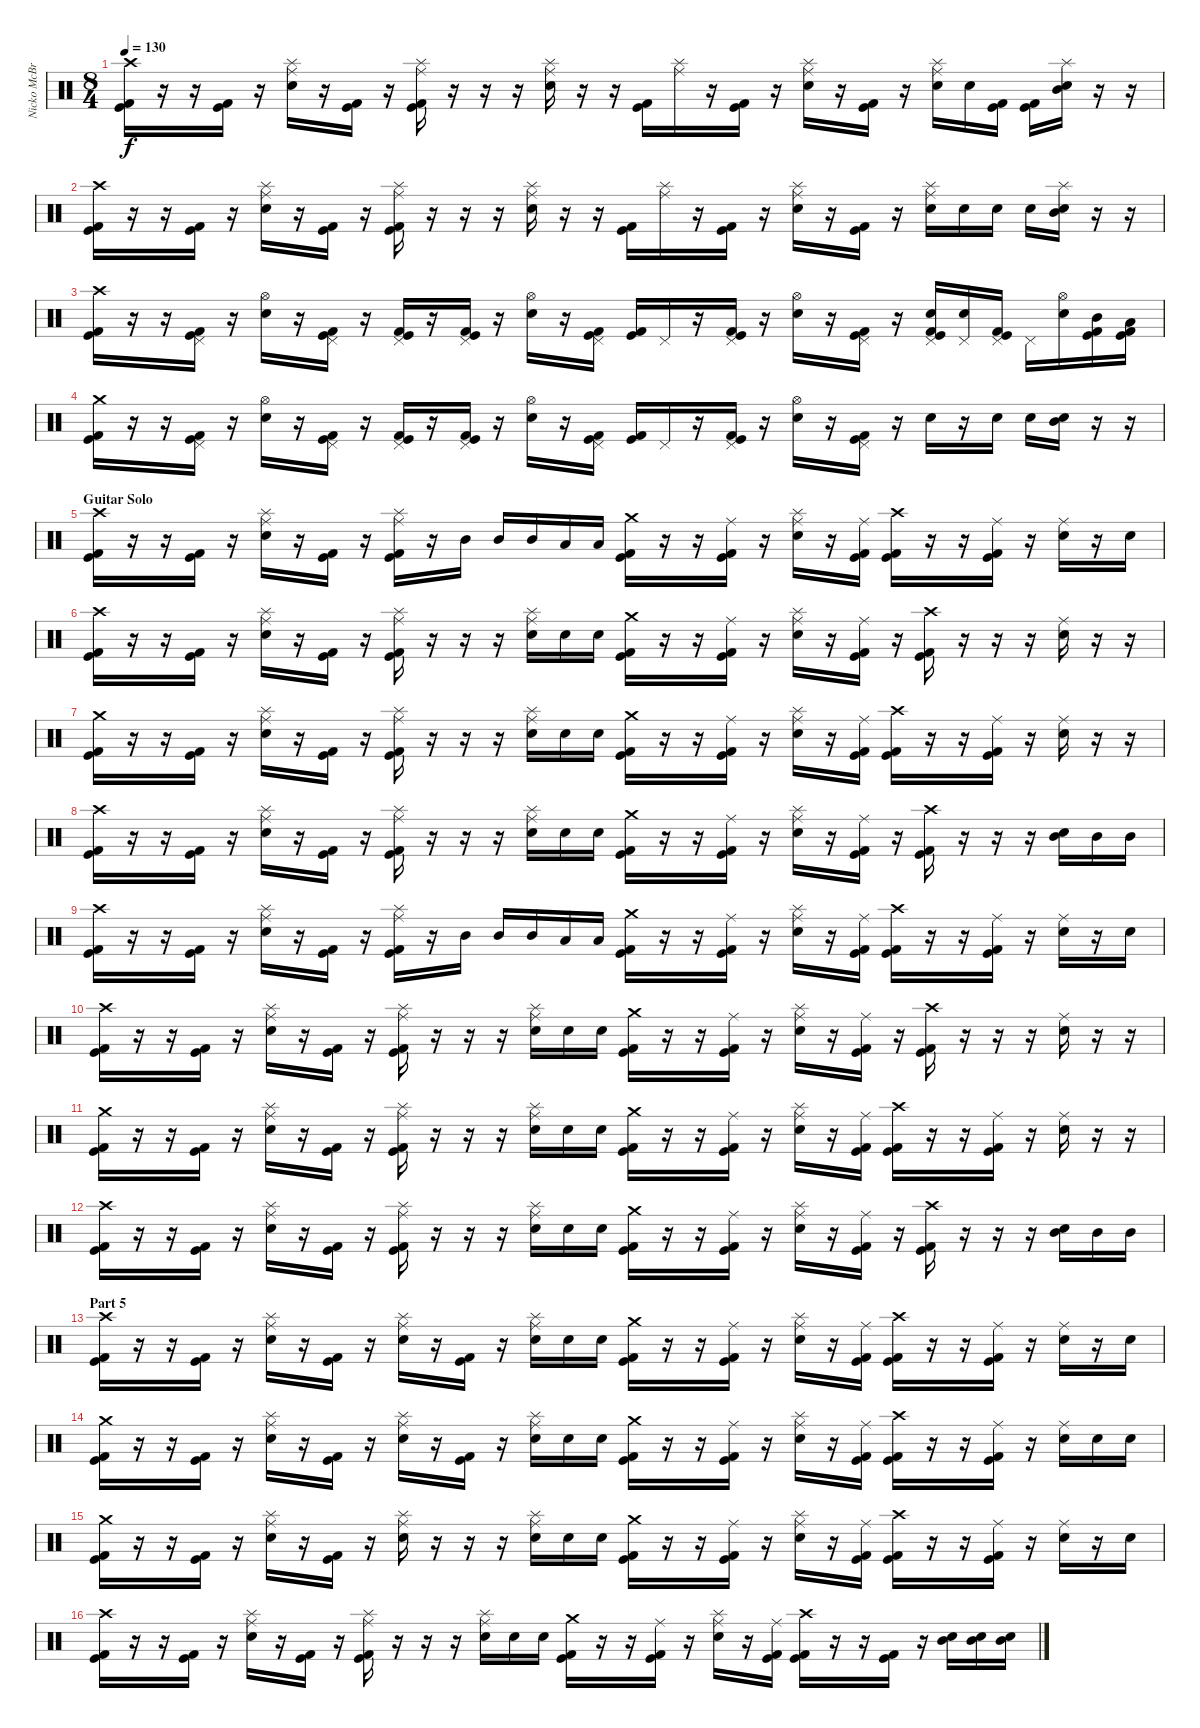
\track ("Nicko McBrain" "Nicko McBr") {instrument percussion}
\staff {score}
\articulation defaults
\ts (8 4)
\tempo 130
\clef neutral
\ks c
("Crash high (hit)" "Kick (hit)" "Kick (hit) 2").16{dy f} r.16 r.16 ("Kick (hit) 2" "Kick (hit)").16 r.16 ("Ride (middle)" "Splash (hit)" "Snare (hit) 2").16 r.16 ("Kick (hit)" "Kick (hit) 2").16 r.16 ("Ride (middle)" "Splash (hit)" "Kick (hit)" "Kick (hit) 2").16 r.16 r.16 r.16 ("Ride (middle)" "Splash (hit)" "Snare (hit) 2").16 r.16 r.16 ("Kick (hit)" "Kick (hit) 2").16 ("Ride (middle)" "Splash (hit)").16 r.16 ("Kick (hit)" "Kick (hit) 2").16 r.16 ("Ride (middle)" "Splash (hit)" "Snare (hit) 2").16 r.16 ("Kick (hit)" "Kick (hit) 2").16 r.16 ("Ride (middle)" "Splash (hit)" "Snare (hit) 2").16 "Snare (hit) 2".16 ("Kick (hit)" "Kick (hit) 2").16 ("Kick (hit)" "Kick (hit) 2").16 ("Mid Tom (hit)" "Splash (hit)" "Snare (hit) 2").16 r.16 r.16 |
("Crash high (hit)" "Kick (hit)" "Kick (hit) 2").16 r.16 r.16 ("Kick (hit) 2" "Kick (hit)").16 r.16 ("Ride (middle)" "Splash (hit)" "Snare (hit) 2").16 r.16 ("Kick (hit)" "Kick (hit) 2").16 r.16 ("Ride (middle)" "Splash (hit)" "Kick (hit)" "Kick (hit) 2").16 r.16 r.16 r.16 ("Ride (middle)" "Splash (hit)" "Snare (hit) 2").16 r.16 r.16 ("Kick (hit)" "Kick (hit) 2").16 ("Ride (middle)" "Splash (hit)").16 r.16 ("Kick (hit)" "Kick (hit) 2").16 r.16 ("Ride (middle)" "Splash (hit)" "Snare (hit) 2").16 r.16 ("Kick (hit)" "Kick (hit) 2").16 r.16 ("Ride (middle)" "Splash (hit)" "Snare (hit) 2").16 "Snare (hit) 2".16 "Snare (hit) 2".16 "Snare (hit) 2".16 ("Mid Tom (hit)" "Splash (hit)" "Snare (hit) 2").16 r.16 r.16 |
("Crash high (hit)" "Kick (hit)" "Kick (hit) 2").16 r.16 r.16 ("Pedal Hi-Hat (hit)" "Kick (hit)" "Kick (hit) 2").16 r.16 ("Hi-Hat (open)" "Snare (hit) 2").16 r.16 ("Pedal Hi-Hat (hit)" "Kick (hit)" "Kick (hit) 2").16 r.16 ("Pedal Hi-Hat (hit)" "Kick (hit)" "Kick (hit) 2").16 r.16 ("Pedal Hi-Hat (hit)" "Kick (hit)" "Kick (hit) 2").16 r.16 ("Hi-Hat (open)" "Snare (hit) 2").16 r.16 ("Pedal Hi-Hat (hit)" "Kick (hit)" "Kick (hit) 2").16 ("Kick (hit)" "Kick (hit) 2").16 "Pedal Hi-Hat (hit)".16 r.16 ("Pedal Hi-Hat (hit)" "Kick (hit)" "Kick (hit) 2").16 r.16 ("Hi-Hat (open)" "Snare (hit) 2").16 r.16 ("Pedal Hi-Hat (hit)" "Kick (hit)" "Kick (hit) 2").16 r.16 ("Pedal Hi-Hat (hit)" "Snare (hit) 2" "Kick (hit)" "Kick (hit) 2").16 ("Pedal Hi-Hat (hit)" "Snare (hit) 2").16 ("Pedal Hi-Hat (hit)" "Kick (hit)" "Kick (hit) 2").16 "Pedal Hi-Hat (hit)".16 ("Hi-Hat (open)" "Snare (hit) 2").16 ("Mid Tom (hit)" "Kick (hit)" "Kick (hit) 2").16 ("Low Tom (hit)" "Kick (hit)" "Kick (hit) 2").16 |
("Crash medium (hit)" "Kick (hit)" "Kick (hit) 2").16 r.16 r.16 ("Pedal Hi-Hat (hit)" "Kick (hit)" "Kick (hit) 2").16 r.16 ("Hi-Hat (open)" "Snare (hit) 2").16 r.16 ("Pedal Hi-Hat (hit)" "Kick (hit)" "Kick (hit) 2").16 r.16 ("Pedal Hi-Hat (hit)" "Kick (hit)" "Kick (hit) 2").16 r.16 ("Pedal Hi-Hat (hit)" "Kick (hit)" "Kick (hit) 2").16 r.16 ("Hi-Hat (open)" "Snare (hit) 2").16 r.16 ("Pedal Hi-Hat (hit)" "Kick (hit)" "Kick (hit) 2").16 ("Kick (hit)" "Kick (hit) 2").16 "Pedal Hi-Hat (hit)".16 r.16 ("Pedal Hi-Hat (hit)" "Kick (hit)" "Kick (hit) 2").16 r.16 ("Hi-Hat (open)" "Snare (hit) 2").16 r.16 ("Pedal Hi-Hat (hit)" "Kick (hit)" "Kick (hit) 2").16 r.16 "Snare (hit) 2".16 r.16 "Snare (hit) 2".16 "Snare (hit) 2".16 ("Mid Tom (hit)" "Snare (hit) 2").16 r.16 r.16 |
\section ("" "Guitar Solo")
("Crash high (hit)" "Kick (hit)" "Kick (hit) 2").16 r.16 r.16 ("Kick (hit) 2" "Kick (hit)").16 r.16 ("Ride (middle)" "Splash (hit)" "Snare (hit) 2").16 r.16 ("Kick (hit)" "Kick (hit) 2").16 r.16 ("Ride (middle)" "Splash (hit)" "Kick (hit)" "Kick (hit) 2").16 r.16 "Mid Tom (hit)".16 "Mid Tom (hit)".16 "Mid Tom (hit)".16 "Low Tom (hit)".16 "Low Tom (hit)".16 ("Crash medium (hit)" "Kick (hit)" "Kick (hit) 2").16 r.16 r.16 ("Ride (middle)" "Kick (hit)" "Kick (hit) 2").16 r.16 ("Ride (middle)" "Splash (hit)" "Snare (hit) 2").16 r.16 ("Ride (middle)" "Kick (hit)" "Kick (hit) 2").16 ("Crash high (hit)" "Kick (hit) 2" "Kick (hit)").16 r.16 r.16 ("Ride (middle)" "Kick (hit)" "Kick (hit) 2").16 r.16 ("Ride (middle)" "Snare (hit) 2").16 r.16 "Snare (hit) 2".16 |
("Crash high (hit)" "Kick (hit)" "Kick (hit) 2").16 r.16 r.16 ("Kick (hit) 2" "Kick (hit)").16 r.16 ("Ride (middle)" "Splash (hit)" "Snare (hit) 2").16 r.16 ("Kick (hit)" "Kick (hit) 2").16 r.16 ("Ride (middle)" "Splash (hit)" "Kick (hit)" "Kick (hit) 2").16 r.16 r.16 r.16 ("Ride (middle)" "Splash (hit)" "Snare (hit) 2").16 "Snare (hit) 2".16 "Snare (hit) 2".16 ("Crash medium (hit)" "Kick (hit)" "Kick (hit) 2").16 r.16 r.16 ("Ride (middle)" "Kick (hit)" "Kick (hit) 2").16 r.16 ("Ride (middle)" "Splash (hit)" "Snare (hit) 2").16 r.16 ("Ride (middle)" "Kick (hit)" "Kick (hit) 2").16 r.16 ("Crash high (hit)" "Kick (hit) 2" "Kick (hit)").16 r.16 r.16 r.16 ("Ride (middle)" "Snare (hit) 2").16 r.16 r.16 |
("Crash medium (hit)" "Kick (hit)" "Kick (hit) 2").16 r.16 r.16 ("Kick (hit) 2" "Kick (hit)").16 r.16 ("Ride (middle)" "Splash (hit)" "Snare (hit) 2").16 r.16 ("Kick (hit)" "Kick (hit) 2").16 r.16 ("Ride (middle)" "Splash (hit)" "Kick (hit)" "Kick (hit) 2").16 r.16 r.16 r.16 ("Ride (middle)" "Splash (hit)" "Snare (hit) 2").16 "Snare (hit) 2".16 "Snare (hit) 2".16 ("Crash medium (hit)" "Kick (hit)" "Kick (hit) 2").16 r.16 r.16 ("Ride (middle)" "Kick (hit)" "Kick (hit) 2").16 r.16 ("Ride (middle)" "Splash (hit)" "Snare (hit) 2").16 r.16 ("Ride (middle)" "Kick (hit)" "Kick (hit) 2").16 ("Crash high (hit)" "Kick (hit) 2" "Kick (hit)").16 r.16 r.16 ("Ride (middle)" "Kick (hit)" "Kick (hit) 2").16 r.16 ("Ride (middle)" "Snare (hit) 2").16 r.16 r.16 |
("Crash high (hit)" "Kick (hit)" "Kick (hit) 2").16 r.16 r.16 ("Kick (hit) 2" "Kick (hit)").16 r.16 ("Ride (middle)" "Splash (hit)" "Snare (hit) 2").16 r.16 ("Kick (hit)" "Kick (hit) 2").16 r.16 ("Ride (middle)" "Splash (hit)" "Kick (hit)" "Kick (hit) 2").16 r.16 r.16 r.16 ("Ride (middle)" "Splash (hit)" "Snare (hit) 2").16 "Snare (hit) 2".16 "Snare (hit) 2".16 ("Crash medium (hit)" "Kick (hit)" "Kick (hit) 2").16 r.16 r.16 ("Ride (middle)" "Kick (hit)" "Kick (hit) 2").16 r.16 ("Ride (middle)" "Splash (hit)" "Snare (hit) 2").16 r.16 ("Ride (middle)" "Kick (hit)" "Kick (hit) 2").16 r.16 ("Crash high (hit)" "Kick (hit) 2" "Kick (hit)").16 r.16 r.16 r.16 ("Mid Tom (hit)" "Snare (hit) 2").16 "Mid Tom (hit)".16 "Mid Tom (hit)".16 |
("Crash high (hit)" "Kick (hit)" "Kick (hit) 2").16 r.16 r.16 ("Kick (hit) 2" "Kick (hit)").16 r.16 ("Ride (middle)" "Splash (hit)" "Snare (hit) 2").16 r.16 ("Kick (hit)" "Kick (hit) 2").16 r.16 ("Ride (middle)" "Splash (hit)" "Kick (hit)" "Kick (hit) 2").16 r.16 "Mid Tom (hit)".16 "Mid Tom (hit)".16 "Mid Tom (hit)".16 "Low Tom (hit)".16 "Low Tom (hit)".16 ("Crash medium (hit)" "Kick (hit)" "Kick (hit) 2").16 r.16 r.16 ("Ride (middle)" "Kick (hit)" "Kick (hit) 2").16 r.16 ("Ride (middle)" "Splash (hit)" "Snare (hit) 2").16 r.16 ("Ride (middle)" "Kick (hit)" "Kick (hit) 2").16 ("Crash high (hit)" "Kick (hit) 2" "Kick (hit)").16 r.16 r.16 ("Ride (middle)" "Kick (hit)" "Kick (hit) 2").16 r.16 ("Ride (middle)" "Snare (hit) 2").16 r.16 "Snare (hit) 2".16 |
("Crash high (hit)" "Kick (hit)" "Kick (hit) 2").16 r.16 r.16 ("Kick (hit) 2" "Kick (hit)").16 r.16 ("Ride (middle)" "Splash (hit)" "Snare (hit) 2").16 r.16 ("Kick (hit)" "Kick (hit) 2").16 r.16 ("Ride (middle)" "Splash (hit)" "Kick (hit)" "Kick (hit) 2").16 r.16 r.16 r.16 ("Ride (middle)" "Splash (hit)" "Snare (hit) 2").16 "Snare (hit) 2".16 "Snare (hit) 2".16 ("Crash medium (hit)" "Kick (hit)" "Kick (hit) 2").16 r.16 r.16 ("Ride (middle)" "Kick (hit)" "Kick (hit) 2").16 r.16 ("Ride (middle)" "Splash (hit)" "Snare (hit) 2").16 r.16 ("Ride (middle)" "Kick (hit)" "Kick (hit) 2").16 r.16 ("Crash high (hit)" "Kick (hit) 2" "Kick (hit)").16 r.16 r.16 r.16 ("Ride (middle)" "Snare (hit) 2").16 r.16 r.16 |
("Crash medium (hit)" "Kick (hit)" "Kick (hit) 2").16 r.16 r.16 ("Kick (hit) 2" "Kick (hit)").16 r.16 ("Ride (middle)" "Splash (hit)" "Snare (hit) 2").16 r.16 ("Kick (hit)" "Kick (hit) 2").16 r.16 ("Ride (middle)" "Splash (hit)" "Kick (hit)" "Kick (hit) 2").16 r.16 r.16 r.16 ("Ride (middle)" "Splash (hit)" "Snare (hit) 2").16 "Snare (hit) 2".16 "Snare (hit) 2".16 ("Crash medium (hit)" "Kick (hit)" "Kick (hit) 2").16 r.16 r.16 ("Ride (middle)" "Kick (hit)" "Kick (hit) 2").16 r.16 ("Ride (middle)" "Splash (hit)" "Snare (hit) 2").16 r.16 ("Ride (middle)" "Kick (hit)" "Kick (hit) 2").16 ("Crash high (hit)" "Kick (hit) 2" "Kick (hit)").16 r.16 r.16 ("Ride (middle)" "Kick (hit)" "Kick (hit) 2").16 r.16 ("Ride (middle)" "Snare (hit) 2").16 r.16 r.16 |
("Crash high (hit)" "Kick (hit)" "Kick (hit) 2").16 r.16 r.16 ("Kick (hit) 2" "Kick (hit)").16 r.16 ("Ride (middle)" "Splash (hit)" "Snare (hit) 2").16 r.16 ("Kick (hit)" "Kick (hit) 2").16 r.16 ("Ride (middle)" "Splash (hit)" "Kick (hit)" "Kick (hit) 2").16 r.16 r.16 r.16 ("Ride (middle)" "Splash (hit)" "Snare (hit) 2").16 "Snare (hit) 2".16 "Snare (hit) 2".16 ("Crash medium (hit)" "Kick (hit)" "Kick (hit) 2").16 r.16 r.16 ("Ride (middle)" "Kick (hit)" "Kick (hit) 2").16 r.16 ("Ride (middle)" "Splash (hit)" "Snare (hit) 2").16 r.16 ("Ride (middle)" "Kick (hit)" "Kick (hit) 2").16 r.16 ("Crash high (hit)" "Kick (hit) 2" "Kick (hit)").16 r.16 r.16 r.16 ("Mid Tom (hit)" "Snare (hit) 2").16 "Mid Tom (hit)".16 "Mid Tom (hit)".16 |
\section ("" "Part 5")
("Crash high (hit)" "Kick (hit)" "Kick (hit) 2").16 r.16 r.16 ("Kick (hit) 2" "Kick (hit)").16 r.16 ("Ride (middle)" "Splash (hit)" "Snare (hit) 2").16 r.16 ("Kick (hit)" "Kick (hit) 2").16 r.16 ("Ride (middle)" "Splash (hit)" "Snare (hit) 2").16 r.16 ("Kick (hit) 2" "Kick (hit)").16 r.16 ("Ride (middle)" "Splash (hit)" "Snare (hit) 2").16 "Snare (hit) 2".16 "Snare (hit) 2".16 ("Crash medium (hit)" "Kick (hit)" "Kick (hit) 2").16 r.16 r.16 ("Ride (middle)" "Kick (hit)" "Kick (hit) 2").16 r.16 ("Ride (middle)" "Splash (hit)" "Snare (hit) 2").16 r.16 ("Ride (middle)" "Kick (hit)" "Kick (hit) 2").16 ("Crash high (hit)" "Kick (hit) 2" "Kick (hit)").16 r.16 r.16 ("Ride (middle)" "Kick (hit)" "Kick (hit) 2").16 r.16 ("Ride (middle)" "Snare (hit) 2").16 r.16 "Snare (hit) 2".16 |
("Crash medium (hit)" "Kick (hit)" "Kick (hit) 2").16 r.16 r.16 ("Kick (hit) 2" "Kick (hit)").16 r.16 ("Ride (middle)" "Splash (hit)" "Snare (hit) 2").16 r.16 ("Kick (hit)" "Kick (hit) 2").16 r.16 ("Ride (middle)" "Splash (hit)" "Snare (hit) 2").16 r.16 ("Kick (hit) 2" "Kick (hit)").16 r.16 ("Ride (middle)" "Splash (hit)" "Snare (hit) 2").16 "Snare (hit) 2".16 "Snare (hit) 2".16 ("Crash medium (hit)" "Kick (hit)" "Kick (hit) 2").16 r.16 r.16 ("Ride (middle)" "Kick (hit)" "Kick (hit) 2").16 r.16 ("Ride (middle)" "Splash (hit)" "Snare (hit) 2").16 r.16 ("Ride (middle)" "Kick (hit)" "Kick (hit) 2").16 ("Crash high (hit)" "Kick (hit) 2" "Kick (hit)").16 r.16 r.16 ("Ride (middle)" "Kick (hit)" "Kick (hit) 2").16 r.16 ("Ride (middle)" "Snare (hit) 2").16 "Snare (hit) 2".16 "Snare (hit) 2".16 |
("Crash medium (hit)" "Kick (hit)" "Kick (hit) 2").16 r.16 r.16 ("Kick (hit) 2" "Kick (hit)").16 r.16 ("Ride (middle)" "Splash (hit)" "Snare (hit) 2").16 r.16 ("Kick (hit)" "Kick (hit) 2").16 r.16 ("Ride (middle)" "Splash (hit)" "Snare (hit) 2").16 r.16 r.16 r.16 ("Ride (middle)" "Splash (hit)" "Snare (hit) 2").16 "Snare (hit) 2".16 "Snare (hit) 2".16 ("Crash medium (hit)" "Kick (hit)" "Kick (hit) 2").16 r.16 r.16 ("Ride (middle)" "Kick (hit)" "Kick (hit) 2").16 r.16 ("Ride (middle)" "Splash (hit)" "Snare (hit) 2").16 r.16 ("Ride (middle)" "Kick (hit)" "Kick (hit) 2").16 ("Crash high (hit)" "Kick (hit) 2" "Kick (hit)").16 r.16 r.16 ("Ride (middle)" "Kick (hit)" "Kick (hit) 2").16 r.16 ("Ride (middle)" "Snare (hit) 2").16 r.16 "Snare (hit) 2".16 |
("Crash high (hit)" "Kick (hit)" "Kick (hit) 2").16 r.16 r.16 ("Kick (hit) 2" "Kick (hit)").16 r.16 ("Ride (middle)" "Splash (hit)" "Snare (hit) 2").16 r.16 ("Kick (hit)" "Kick (hit) 2").16 r.16 ("Ride (middle)" "Splash (hit)" "Kick (hit)" "Kick (hit) 2").16 r.16 r.16 r.16 ("Ride (middle)" "Splash (hit)" "Snare (hit) 2").16 "Snare (hit) 2".16 "Snare (hit) 2".16 ("Crash medium (hit)" "Kick (hit)" "Kick (hit) 2").16 r.16 r.16 ("Ride (middle)" "Kick (hit)" "Kick (hit) 2").16 r.16 ("Ride (middle)" "Splash (hit)" "Snare (hit) 2").16 r.16 ("Ride (middle)" "Kick (hit)" "Kick (hit) 2").16 ("Crash high (hit)" "Kick (hit) 2" "Kick (hit)").16 r.16 r.16 ("Kick (hit) 2" "Kick (hit)").16 r.16 ("Mid Tom (hit)" "Snare (hit) 2").16 ("Mid Tom (hit)" "Snare (hit) 2").16 ("Mid Tom (hit)" "Snare (hit) 2").16
